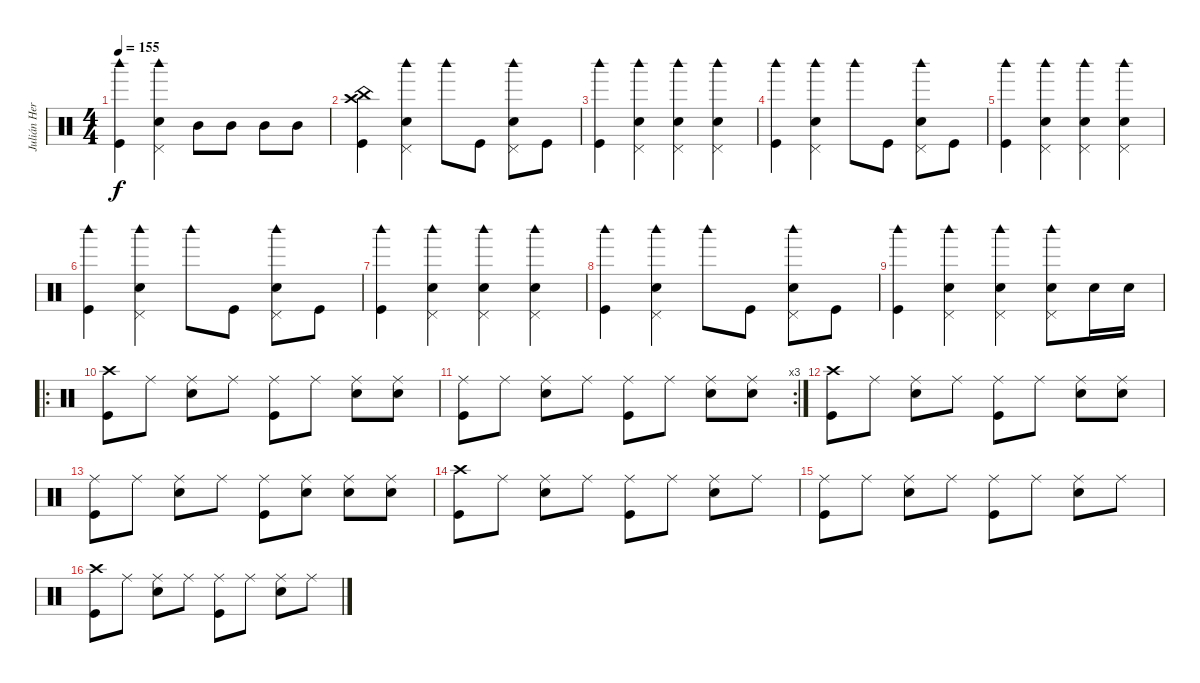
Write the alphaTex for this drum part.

\track ("Julián Hernandez" "Julián Her") {instrument percussion}
\staff {score}
\articulation defaults
\ts (4 4)
\tempo 155
\clef neutral
\ks c
("Woodblock high (hit)" "Kick (hit)").4{dy f} ("Woodblock high (hit)" "Pedal Hi-Hat (hit)" "Snare (hit) 2").4 "Mid Tom (hit)".8 "Mid Tom (hit)".8 "Mid Tom (hit)".8 "Mid Tom (hit)".8 |
("Crash high (hit)" "China (hit)" "Kick (hit)").4 ("Woodblock high (hit)" "Pedal Hi-Hat (hit)" "Snare (hit) 2").4 "Woodblock high (hit)".8 "Kick (hit)".8 ("Woodblock high (hit)" "Pedal Hi-Hat (hit)" "Snare (hit) 2").8 "Kick (hit)".8 |
("Woodblock high (hit)" "Kick (hit)").4 ("Woodblock high (hit)" "Pedal Hi-Hat (hit)" "Snare (hit) 2").4 ("Woodblock high (hit)" "Pedal Hi-Hat (hit)" "Snare (hit) 2").4 ("Woodblock high (hit)" "Pedal Hi-Hat (hit)" "Snare (hit) 2").4 |
("Woodblock high (hit)" "Kick (hit)").4 ("Woodblock high (hit)" "Pedal Hi-Hat (hit)" "Snare (hit) 2").4 "Woodblock high (hit)".8 "Kick (hit)".8 ("Woodblock high (hit)" "Pedal Hi-Hat (hit)" "Snare (hit) 2").8 "Kick (hit)".8 |
("Woodblock high (hit)" "Kick (hit)").4 ("Woodblock high (hit)" "Pedal Hi-Hat (hit)" "Snare (hit) 2").4 ("Woodblock high (hit)" "Pedal Hi-Hat (hit)" "Snare (hit) 2").4 ("Woodblock high (hit)" "Pedal Hi-Hat (hit)" "Snare (hit) 2").4 |
("Woodblock high (hit)" "Kick (hit)").4 ("Woodblock high (hit)" "Pedal Hi-Hat (hit)" "Snare (hit) 2").4 "Woodblock high (hit)".8 "Kick (hit)".8 ("Woodblock high (hit)" "Pedal Hi-Hat (hit)" "Snare (hit) 2").8 "Kick (hit)".8 |
("Woodblock high (hit)" "Kick (hit)").4 ("Woodblock high (hit)" "Pedal Hi-Hat (hit)" "Snare (hit) 2").4 ("Woodblock high (hit)" "Pedal Hi-Hat (hit)" "Snare (hit) 2").4 ("Woodblock high (hit)" "Pedal Hi-Hat (hit)" "Snare (hit) 2").4 |
("Woodblock high (hit)" "Kick (hit)").4 ("Woodblock high (hit)" "Pedal Hi-Hat (hit)" "Snare (hit) 2").4 "Woodblock high (hit)".8 "Kick (hit)".8 ("Woodblock high (hit)" "Pedal Hi-Hat (hit)" "Snare (hit) 2").8 "Kick (hit)".8 |
("Woodblock high (hit)" "Kick (hit)").4 ("Woodblock high (hit)" "Pedal Hi-Hat (hit)" "Snare (hit) 2").4 ("Woodblock high (hit)" "Pedal Hi-Hat (hit)" "Snare (hit) 2").4 ("Woodblock high (hit)" "Pedal Hi-Hat (hit)" "Snare (hit) 2").8 "Snare (hit) 2".16 "Snare (hit) 2".16 |
\ro
("Crash high (hit)" "Kick (hit)").8 "Ride (middle)".8 ("Ride (middle)" "Snare (hit) 2").8 "Ride (middle)".8 ("Ride (middle)" "Kick (hit)").8 "Ride (middle)".8 ("Ride (middle)" "Snare (hit) 2").8 ("Ride (middle)" "Snare (hit) 2").8 |
\rc 3
("Ride (middle)" "Kick (hit)").8 "Ride (middle)".8 ("Ride (middle)" "Snare (hit) 2").8 "Ride (middle)".8 ("Ride (middle)" "Kick (hit)").8 "Ride (middle)".8 ("Ride (middle)" "Snare (hit) 2").8 ("Ride (middle)" "Snare (hit) 2").8 |
("Crash high (hit)" "Kick (hit)").8 "Ride (middle)".8 ("Ride (middle)" "Snare (hit) 2").8 "Ride (middle)".8 ("Ride (middle)" "Kick (hit)").8 "Ride (middle)".8 ("Ride (middle)" "Snare (hit) 2").8 ("Ride (middle)" "Snare (hit) 2").8 |
("Ride (middle)" "Kick (hit)").8 "Ride (middle)".8 ("Ride (middle)" "Snare (hit) 2").8 "Ride (middle)".8 ("Ride (middle)" "Kick (hit)").8 ("Ride (middle)" "Snare (hit) 2").8 ("Ride (middle)" "Snare (hit) 2").8 ("Ride (middle)" "Snare (hit) 2").8 |
("Crash high (hit)" "Kick (hit)").8 "Ride (middle)".8 ("Ride (middle)" "Snare (hit) 2").8 "Ride (middle)".8 ("Ride (middle)" "Kick (hit)").8 "Ride (middle)".8 ("Ride (middle)" "Snare (hit) 2").8 "Ride (middle)".8 |
("Ride (middle)" "Kick (hit)").8 "Ride (middle)".8 ("Ride (middle)" "Snare (hit) 2").8 "Ride (middle)".8 ("Ride (middle)" "Kick (hit)").8 "Ride (middle)".8 ("Ride (middle)" "Snare (hit) 2").8 "Ride (middle)".8 |
("Crash high (hit)" "Kick (hit)").8 "Ride (middle)".8 ("Ride (middle)" "Snare (hit) 2").8 "Ride (middle)".8 ("Ride (middle)" "Kick (hit)").8 "Ride (middle)".8 ("Ride (middle)" "Snare (hit) 2").8 "Ride (middle)".8
